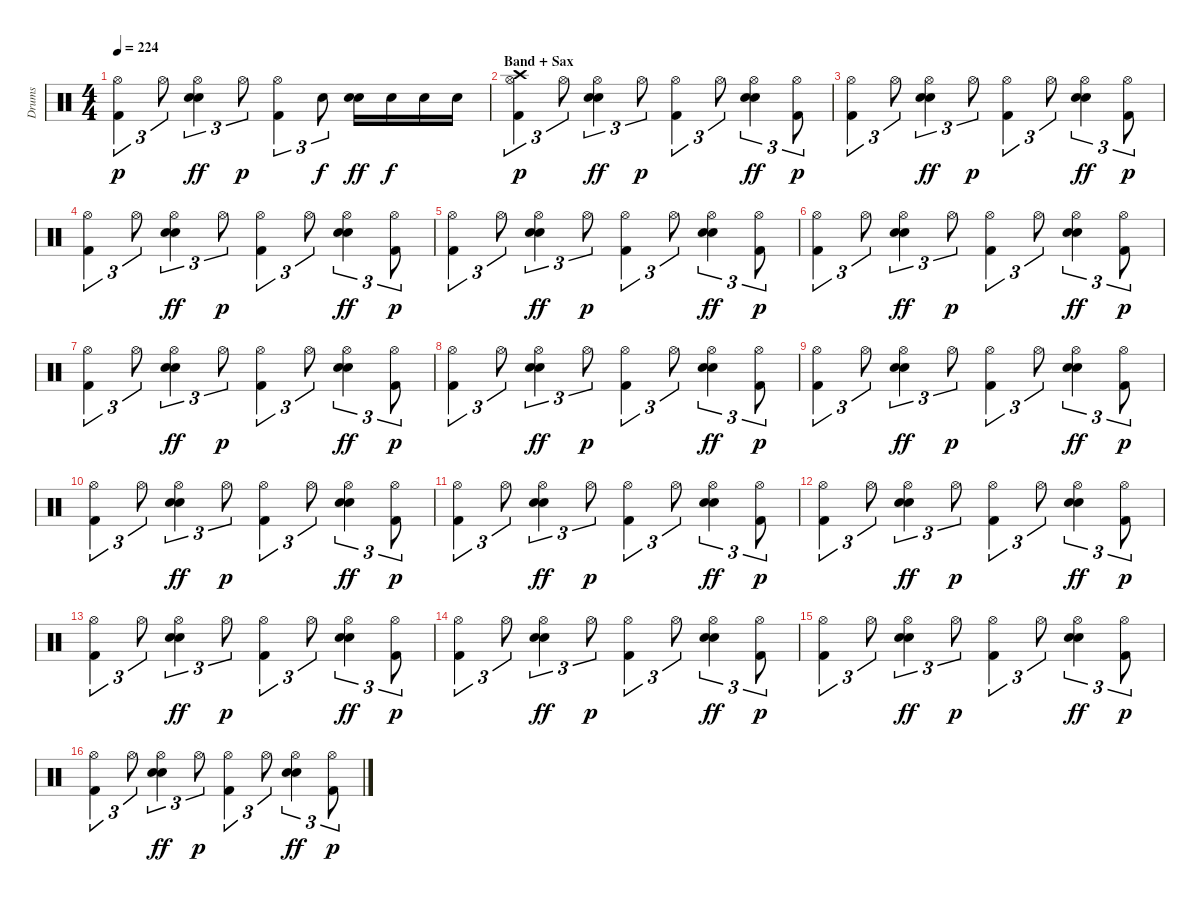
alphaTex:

\track ("Drums" "Drums") {instrument percussion}
\staff {score}
\articulation defaults
\ts (4 4)
\tempo 224
\clef neutral
\ks c
("Hi-Hat (open)" "Kick (hit) 2").4{tu (3 2) dy p} "Hi-Hat (open)".8{tu (3 2)} ("Hand Clap (hit)" "Hi-Hat (open)" "Snare (hit) 2").4{tu (3 2) dy ff} "Hi-Hat (open)".8{tu (3 2) dy p} ("Hi-Hat (open)" "Kick (hit) 2").4{tu (3 2)} "Snare (hit) 2".8{tu (3 2) dy f} ("Hand Clap (hit)" "Snare (hit) 2").16{dy ff} "Snare (hit) 2".16{dy f} "Snare (hit) 2".16 "Snare (hit) 2".16 |
\section ("" "Band + Sax")
("Crash high (hit)" "Hi-Hat (open)" "Kick (hit) 2").4{tu (3 2) dy p} "Hi-Hat (open)".8{tu (3 2)} ("Hand Clap (hit)" "Hi-Hat (open)" "Snare (hit) 2").4{tu (3 2) dy ff} "Hi-Hat (open)".8{tu (3 2) dy p} ("Hi-Hat (open)" "Kick (hit) 2").4{tu (3 2)} "Hi-Hat (open)".8{tu (3 2)} ("Hand Clap (hit)" "Hi-Hat (open)" "Snare (hit) 2").4{tu (3 2) dy ff} ("Hi-Hat (open)" "Kick (hit) 2").8{tu (3 2) dy p} |
("Hi-Hat (open)" "Kick (hit) 2").4{tu (3 2)} "Hi-Hat (open)".8{tu (3 2)} ("Hand Clap (hit)" "Hi-Hat (open)" "Snare (hit) 2").4{tu (3 2) dy ff} "Hi-Hat (open)".8{tu (3 2) dy p} ("Hi-Hat (open)" "Kick (hit) 2").4{tu (3 2)} "Hi-Hat (open)".8{tu (3 2)} ("Hand Clap (hit)" "Hi-Hat (open)" "Snare (hit) 2").4{tu (3 2) dy ff} ("Hi-Hat (open)" "Kick (hit) 2").8{tu (3 2) dy p} |
("Hi-Hat (open)" "Kick (hit) 2").4{tu (3 2)} "Hi-Hat (open)".8{tu (3 2)} ("Hand Clap (hit)" "Hi-Hat (open)" "Snare (hit) 2").4{tu (3 2) dy ff} "Hi-Hat (open)".8{tu (3 2) dy p} ("Hi-Hat (open)" "Kick (hit) 2").4{tu (3 2)} "Hi-Hat (open)".8{tu (3 2)} ("Hand Clap (hit)" "Hi-Hat (open)" "Snare (hit) 2").4{tu (3 2) dy ff} ("Hi-Hat (open)" "Kick (hit) 2").8{tu (3 2) dy p} |
("Hi-Hat (open)" "Kick (hit) 2").4{tu (3 2)} "Hi-Hat (open)".8{tu (3 2)} ("Hand Clap (hit)" "Hi-Hat (open)" "Snare (hit) 2").4{tu (3 2) dy ff} "Hi-Hat (open)".8{tu (3 2) dy p} ("Hi-Hat (open)" "Kick (hit) 2").4{tu (3 2)} "Hi-Hat (open)".8{tu (3 2)} ("Hand Clap (hit)" "Hi-Hat (open)" "Snare (hit) 2").4{tu (3 2) dy ff} ("Hi-Hat (open)" "Kick (hit) 2").8{tu (3 2) dy p} |
("Hi-Hat (open)" "Kick (hit) 2").4{tu (3 2)} "Hi-Hat (open)".8{tu (3 2)} ("Hand Clap (hit)" "Hi-Hat (open)" "Snare (hit) 2").4{tu (3 2) dy ff} "Hi-Hat (open)".8{tu (3 2) dy p} ("Hi-Hat (open)" "Kick (hit) 2").4{tu (3 2)} "Hi-Hat (open)".8{tu (3 2)} ("Hand Clap (hit)" "Hi-Hat (open)" "Snare (hit) 2").4{tu (3 2) dy ff} ("Hi-Hat (open)" "Kick (hit) 2").8{tu (3 2) dy p} |
("Hi-Hat (open)" "Kick (hit) 2").4{tu (3 2)} "Hi-Hat (open)".8{tu (3 2)} ("Hand Clap (hit)" "Hi-Hat (open)" "Snare (hit) 2").4{tu (3 2) dy ff} "Hi-Hat (open)".8{tu (3 2) dy p} ("Hi-Hat (open)" "Kick (hit) 2").4{tu (3 2)} "Hi-Hat (open)".8{tu (3 2)} ("Hand Clap (hit)" "Hi-Hat (open)" "Snare (hit) 2").4{tu (3 2) dy ff} ("Hi-Hat (open)" "Kick (hit) 2").8{tu (3 2) dy p} |
("Hi-Hat (open)" "Kick (hit) 2").4{tu (3 2)} "Hi-Hat (open)".8{tu (3 2)} ("Hand Clap (hit)" "Hi-Hat (open)" "Snare (hit) 2").4{tu (3 2) dy ff} "Hi-Hat (open)".8{tu (3 2) dy p} ("Hi-Hat (open)" "Kick (hit) 2").4{tu (3 2)} "Hi-Hat (open)".8{tu (3 2)} ("Hand Clap (hit)" "Hi-Hat (open)" "Snare (hit) 2").4{tu (3 2) dy ff} ("Hi-Hat (open)" "Kick (hit) 2").8{tu (3 2) dy p} |
("Hi-Hat (open)" "Kick (hit) 2").4{tu (3 2)} "Hi-Hat (open)".8{tu (3 2)} ("Hand Clap (hit)" "Hi-Hat (open)" "Snare (hit) 2").4{tu (3 2) dy ff} "Hi-Hat (open)".8{tu (3 2) dy p} ("Hi-Hat (open)" "Kick (hit) 2").4{tu (3 2)} "Hi-Hat (open)".8{tu (3 2)} ("Hand Clap (hit)" "Hi-Hat (open)" "Snare (hit) 2").4{tu (3 2) dy ff} ("Hi-Hat (open)" "Kick (hit) 2").8{tu (3 2) dy p} |
("Hi-Hat (open)" "Kick (hit) 2").4{tu (3 2)} "Hi-Hat (open)".8{tu (3 2)} ("Hand Clap (hit)" "Hi-Hat (open)" "Snare (hit) 2").4{tu (3 2) dy ff} "Hi-Hat (open)".8{tu (3 2) dy p} ("Hi-Hat (open)" "Kick (hit) 2").4{tu (3 2)} "Hi-Hat (open)".8{tu (3 2)} ("Hand Clap (hit)" "Hi-Hat (open)" "Snare (hit) 2").4{tu (3 2) dy ff} ("Hi-Hat (open)" "Kick (hit) 2").8{tu (3 2) dy p} |
("Hi-Hat (open)" "Kick (hit) 2").4{tu (3 2)} "Hi-Hat (open)".8{tu (3 2)} ("Hand Clap (hit)" "Hi-Hat (open)" "Snare (hit) 2").4{tu (3 2) dy ff} "Hi-Hat (open)".8{tu (3 2) dy p} ("Hi-Hat (open)" "Kick (hit) 2").4{tu (3 2)} "Hi-Hat (open)".8{tu (3 2)} ("Hand Clap (hit)" "Hi-Hat (open)" "Snare (hit) 2").4{tu (3 2) dy ff} ("Hi-Hat (open)" "Kick (hit) 2").8{tu (3 2) dy p} |
("Hi-Hat (open)" "Kick (hit) 2").4{tu (3 2)} "Hi-Hat (open)".8{tu (3 2)} ("Hand Clap (hit)" "Hi-Hat (open)" "Snare (hit) 2").4{tu (3 2) dy ff} "Hi-Hat (open)".8{tu (3 2) dy p} ("Hi-Hat (open)" "Kick (hit) 2").4{tu (3 2)} "Hi-Hat (open)".8{tu (3 2)} ("Hand Clap (hit)" "Hi-Hat (open)" "Snare (hit) 2").4{tu (3 2) dy ff} ("Hi-Hat (open)" "Kick (hit) 2").8{tu (3 2) dy p} |
("Hi-Hat (open)" "Kick (hit) 2").4{tu (3 2)} "Hi-Hat (open)".8{tu (3 2)} ("Hand Clap (hit)" "Hi-Hat (open)" "Snare (hit) 2").4{tu (3 2) dy ff} "Hi-Hat (open)".8{tu (3 2) dy p} ("Hi-Hat (open)" "Kick (hit) 2").4{tu (3 2)} "Hi-Hat (open)".8{tu (3 2)} ("Hand Clap (hit)" "Hi-Hat (open)" "Snare (hit) 2").4{tu (3 2) dy ff} ("Hi-Hat (open)" "Kick (hit) 2").8{tu (3 2) dy p} |
("Hi-Hat (open)" "Kick (hit) 2").4{tu (3 2)} "Hi-Hat (open)".8{tu (3 2)} ("Hand Clap (hit)" "Hi-Hat (open)" "Snare (hit) 2").4{tu (3 2) dy ff} "Hi-Hat (open)".8{tu (3 2) dy p} ("Hi-Hat (open)" "Kick (hit) 2").4{tu (3 2)} "Hi-Hat (open)".8{tu (3 2)} ("Hand Clap (hit)" "Hi-Hat (open)" "Snare (hit) 2").4{tu (3 2) dy ff} ("Hi-Hat (open)" "Kick (hit) 2").8{tu (3 2) dy p} |
("Hi-Hat (open)" "Kick (hit) 2").4{tu (3 2)} "Hi-Hat (open)".8{tu (3 2)} ("Hand Clap (hit)" "Hi-Hat (open)" "Snare (hit) 2").4{tu (3 2) dy ff} "Hi-Hat (open)".8{tu (3 2) dy p} ("Hi-Hat (open)" "Kick (hit) 2").4{tu (3 2)} "Hi-Hat (open)".8{tu (3 2)} ("Hand Clap (hit)" "Hi-Hat (open)" "Snare (hit) 2").4{tu (3 2) dy ff} ("Hi-Hat (open)" "Kick (hit) 2").8{tu (3 2) dy p} |
("Hi-Hat (open)" "Kick (hit) 2").4{tu (3 2)} "Hi-Hat (open)".8{tu (3 2)} ("Hand Clap (hit)" "Hi-Hat (open)" "Snare (hit) 2").4{tu (3 2) dy ff} "Hi-Hat (open)".8{tu (3 2) dy p} ("Hi-Hat (open)" "Kick (hit) 2").4{tu (3 2)} "Hi-Hat (open)".8{tu (3 2)} ("Hand Clap (hit)" "Hi-Hat (open)" "Snare (hit) 2").4{tu (3 2) dy ff} ("Hi-Hat (open)" "Kick (hit) 2").8{tu (3 2) dy p}
